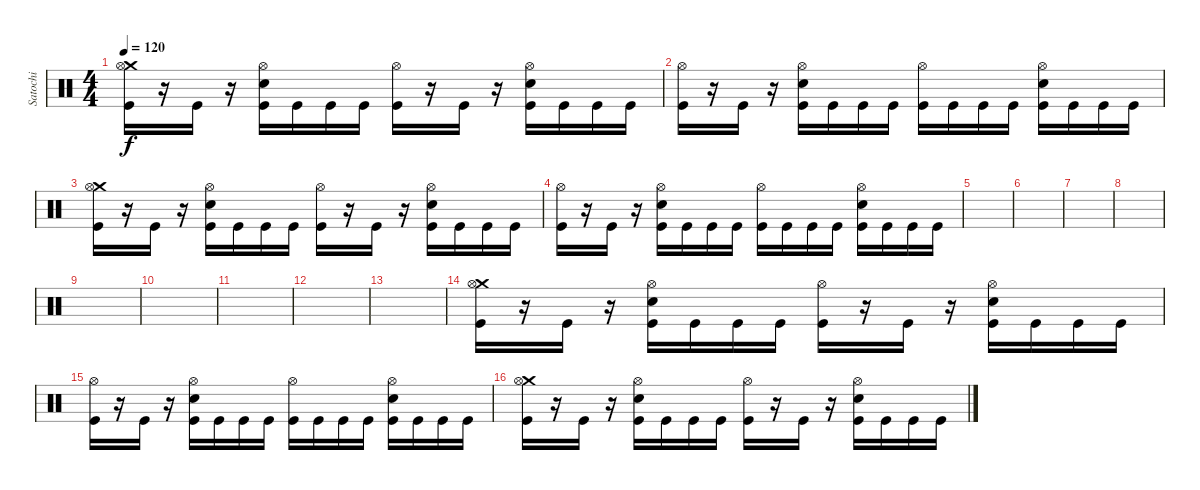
\track ("Satochi" "Satochi") {instrument percussion}
\staff {score}
\articulation defaults
\ts (4 4)
\tempo 120
\clef neutral
\ks c
("Crash medium (hit)" "Hi-Hat (open)" "Kick (hit)").16{dy f} r.16 "Kick (hit)".16 r.16 ("Hi-Hat (open)" "Electric Snare (hit)" "Kick (hit)").16 "Kick (hit)".16 "Kick (hit)".16 "Kick (hit)".16 ("Hi-Hat (open)" "Kick (hit)").16 r.16 "Kick (hit)".16 r.16 ("Hi-Hat (open)" "Electric Snare (hit)" "Kick (hit)").16 "Kick (hit)".16 "Kick (hit)".16 "Kick (hit)".16 |
("Hi-Hat (open)" "Kick (hit)").16 r.16 "Kick (hit)".16 r.16 ("Hi-Hat (open)" "Electric Snare (hit)" "Kick (hit)").16 "Kick (hit)".16 "Kick (hit)".16 "Kick (hit)".16 ("Hi-Hat (open)" "Kick (hit)").16 "Kick (hit)".16 "Kick (hit)".16 "Kick (hit)".16 ("Hi-Hat (open)" "Electric Snare (hit)" "Kick (hit)").16 "Kick (hit)".16 "Kick (hit)".16 "Kick (hit)".16 |
("Crash medium (hit)" "Hi-Hat (open)" "Kick (hit)").16 r.16 "Kick (hit)".16 r.16 ("Hi-Hat (open)" "Electric Snare (hit)" "Kick (hit)").16 "Kick (hit)".16 "Kick (hit)".16 "Kick (hit)".16 ("Hi-Hat (open)" "Kick (hit)").16 r.16 "Kick (hit)".16 r.16 ("Hi-Hat (open)" "Electric Snare (hit)" "Kick (hit)").16 "Kick (hit)".16 "Kick (hit)".16 "Kick (hit)".16 |
("Hi-Hat (open)" "Kick (hit)").16 r.16 "Kick (hit)".16 r.16 ("Hi-Hat (open)" "Electric Snare (hit)" "Kick (hit)").16 "Kick (hit)".16 "Kick (hit)".16 "Kick (hit)".16 ("Hi-Hat (open)" "Kick (hit)").16 "Kick (hit)".16 "Kick (hit)".16 "Kick (hit)".16 ("Hi-Hat (open)" "Electric Snare (hit)" "Kick (hit)").16 "Kick (hit)".16 "Kick (hit)".16 "Kick (hit)".16 |
|
|
|
|
|
|
|
|
|
("Crash medium (hit)" "Hi-Hat (open)" "Kick (hit)").16 r.16 "Kick (hit)".16 r.16 ("Hi-Hat (open)" "Electric Snare (hit)" "Kick (hit)").16 "Kick (hit)".16 "Kick (hit)".16 "Kick (hit)".16 ("Hi-Hat (open)" "Kick (hit)").16 r.16 "Kick (hit)".16 r.16 ("Hi-Hat (open)" "Electric Snare (hit)" "Kick (hit)").16 "Kick (hit)".16 "Kick (hit)".16 "Kick (hit)".16 |
("Hi-Hat (open)" "Kick (hit)").16 r.16 "Kick (hit)".16 r.16 ("Hi-Hat (open)" "Electric Snare (hit)" "Kick (hit)").16 "Kick (hit)".16 "Kick (hit)".16 "Kick (hit)".16 ("Hi-Hat (open)" "Kick (hit)").16 "Kick (hit)".16 "Kick (hit)".16 "Kick (hit)".16 ("Hi-Hat (open)" "Electric Snare (hit)" "Kick (hit)").16 "Kick (hit)".16 "Kick (hit)".16 "Kick (hit)".16 |
("Crash medium (hit)" "Hi-Hat (open)" "Kick (hit)").16 r.16 "Kick (hit)".16 r.16 ("Hi-Hat (open)" "Electric Snare (hit)" "Kick (hit)").16 "Kick (hit)".16 "Kick (hit)".16 "Kick (hit)".16 ("Hi-Hat (open)" "Kick (hit)").16 r.16 "Kick (hit)".16 r.16 ("Hi-Hat (open)" "Electric Snare (hit)" "Kick (hit)").16 "Kick (hit)".16 "Kick (hit)".16 "Kick (hit)".16
